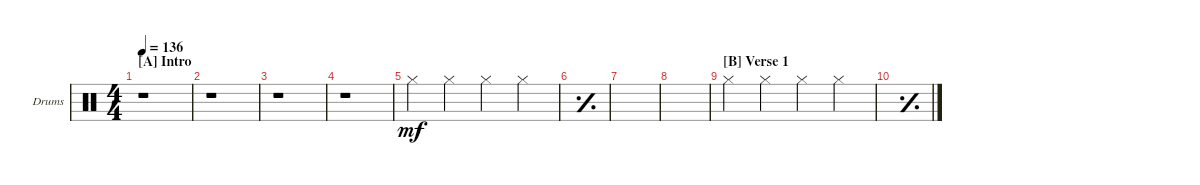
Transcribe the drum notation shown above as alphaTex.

\defaultSystemsLayout 4
\bracketExtendMode groupsimilarinstruments
\firstSystemTrackNameOrientation horizontal
\otherSystemsTrackNameOrientation horizontal
\track ("Drums" "Drums") {instrument percussion}
\staff {score}
\articulation defaults
\ts (4 4)
\section ("A" "Intro")
\tempo 136
\clef neutral
\scale
0.474178
\ks c
r.1{dy mf} |
\scale
0.262911 r.1 |
\scale
0.262911 r.1 |
\scale
0.333333 r.1 |
\scale
0.333333 "Hi-Hat (closed)".4 "Hi-Hat (closed)".4 "Hi-Hat (closed)".4 "Hi-Hat (closed)".4 |
\simile simple
\scale
0.333333 |
|
|
\section ("B" "Verse 1")
\simile none "Hi-Hat (closed)".4 "Hi-Hat (closed)".4 "Hi-Hat (closed)".4 "Hi-Hat (closed)".4
|
\simile simple
